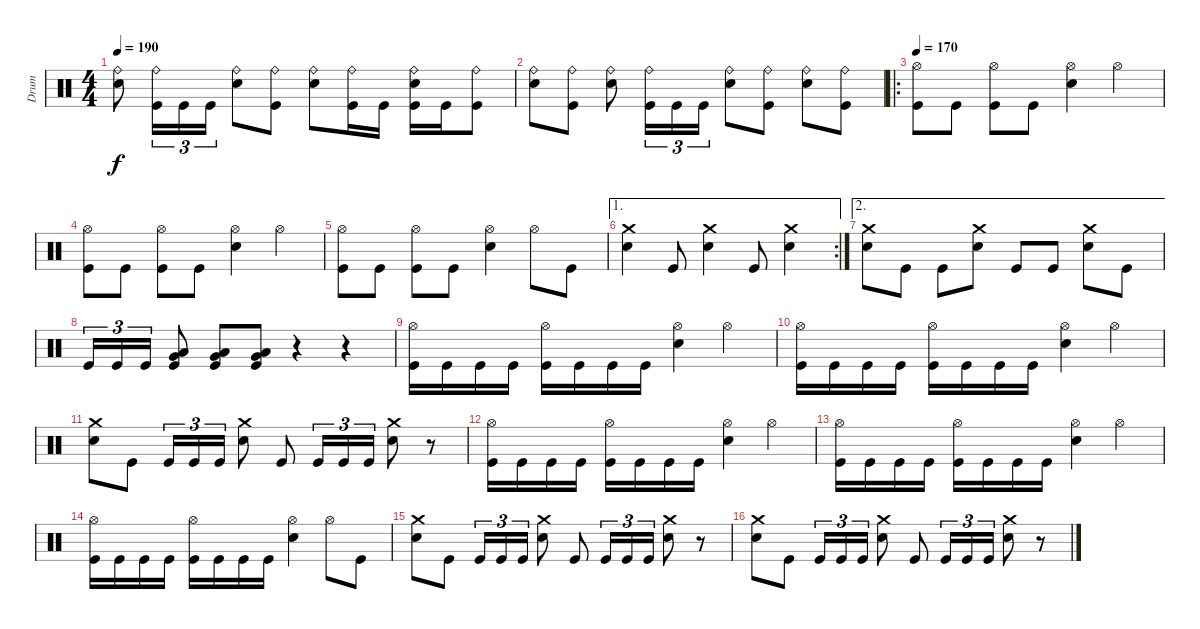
\track ("Drum" "Drum") {instrument percussion}
\staff {score}
\articulation defaults
\ts (4 4)
\tempo 190
\clef neutral
\ks c
("Electric Snare (hit)" "Ride (bell)").8{dy f} ("Kick (hit)" "Ride (bell)").16{tu (3 2)} "Kick (hit)".16{tu (3 2)} "Kick (hit)".16{tu (3 2)} ("Electric Snare (hit)" "Ride (bell)").8 ("Kick (hit)" "Ride (bell)").8 ("Electric Snare (hit)" "Ride (bell)").8 ("Kick (hit)" "Ride (bell)").16 "Kick (hit)".16 ("Kick (hit)" "Electric Snare (hit)" "Ride (bell)").16 "Kick (hit)".16 ("Kick (hit)" "Ride (bell)").8 |
("Electric Snare (hit)" "Ride (bell)").8 ("Kick (hit)" "Ride (bell)").8 ("Electric Snare (hit)" "Ride (bell)").8 ("Kick (hit)" "Ride (bell)").16{tu (3 2)} "Kick (hit)".16{tu (3 2)} "Kick (hit)".16{tu (3 2)} ("Electric Snare (hit)" "Ride (bell)").8 ("Kick (hit)" "Ride (bell)").8 ("Electric Snare (hit)" "Ride (bell)").8 ("Kick (hit)" "Ride (bell)").8 |
\ro
\tempo 170
("Kick (hit)" "Hi-Hat (open)").8 "Kick (hit)".8 ("Kick (hit)" "Hi-Hat (open)").8 "Kick (hit)".8 ("Electric Snare (hit)" "Hi-Hat (open)").4 "Hi-Hat (open)".4 |
("Kick (hit)" "Hi-Hat (open)").8 "Kick (hit)".8 ("Kick (hit)" "Hi-Hat (open)").8 "Kick (hit)".8 ("Electric Snare (hit)" "Hi-Hat (open)").4 "Hi-Hat (open)".4 |
("Kick (hit)" "Hi-Hat (open)").8 "Kick (hit)".8 ("Kick (hit)" "Hi-Hat (open)").8 "Kick (hit)".8 ("Electric Snare (hit)" "Hi-Hat (open)").4 "Hi-Hat (open)".8 "Kick (hit)".8 |
\ae 1
\rc 2
("Electric Snare (hit)" "Crash medium (hit)").4 "Kick (hit)".8 ("Electric Snare (hit)" "Crash medium (hit)").4 "Kick (hit)".8 ("Electric Snare (hit)" "Crash medium (hit)").4 |
\ae 2
("Electric Snare (hit)" "Crash medium (hit)").8 "Kick (hit)".8 "Kick (hit)".8 ("Electric Snare (hit)" "Crash medium (hit)").8 "Kick (hit)".8 "Kick (hit)".8 ("Electric Snare (hit)" "Crash medium (hit)").8 "Kick (hit)".8 |
"Kick (hit)".16{tu (3 2)} "Kick (hit)".16{tu (3 2)} "Kick (hit)".16{tu (3 2)} ("Kick (hit)" "Very Low Tom (hit)" "Low Tom (hit)").8 ("Kick (hit)" "Very Low Tom (hit)" "Low Tom (hit)").8 ("Kick (hit)" "Very Low Tom (hit)" "Low Tom (hit)").8 r.4 r.4 |
("Kick (hit)" "Hi-Hat (open)").16 "Kick (hit)".16 "Kick (hit)".16 "Kick (hit)".16 ("Kick (hit)" "Hi-Hat (open)").16 "Kick (hit)".16 "Kick (hit)".16 "Kick (hit)".16 ("Electric Snare (hit)" "Hi-Hat (open)").4 "Hi-Hat (open)".4 |
("Kick (hit)" "Hi-Hat (open)").16 "Kick (hit)".16 "Kick (hit)".16 "Kick (hit)".16 ("Kick (hit)" "Hi-Hat (open)").16 "Kick (hit)".16 "Kick (hit)".16 "Kick (hit)".16 ("Electric Snare (hit)" "Hi-Hat (open)").4 "Hi-Hat (open)".4 |
("Electric Snare (hit)" "Crash medium (hit)").8 "Kick (hit)".8 "Kick (hit)".16{tu (3 2)} "Kick (hit)".16{tu (3 2)} "Kick (hit)".16{tu (3 2)} ("Electric Snare (hit)" "Crash medium (hit)").8 "Kick (hit)".8 "Kick (hit)".16{tu (3 2)} "Kick (hit)".16{tu (3 2)} "Kick (hit)".16{tu (3 2)} ("Electric Snare (hit)" "Crash medium (hit)").8 r.8 |
("Kick (hit)" "Hi-Hat (open)").16 "Kick (hit)".16 "Kick (hit)".16 "Kick (hit)".16 ("Kick (hit)" "Hi-Hat (open)").16 "Kick (hit)".16 "Kick (hit)".16 "Kick (hit)".16 ("Electric Snare (hit)" "Hi-Hat (open)").4 "Hi-Hat (open)".4 |
("Kick (hit)" "Hi-Hat (open)").16 "Kick (hit)".16 "Kick (hit)".16 "Kick (hit)".16 ("Kick (hit)" "Hi-Hat (open)").16 "Kick (hit)".16 "Kick (hit)".16 "Kick (hit)".16 ("Electric Snare (hit)" "Hi-Hat (open)").4 "Hi-Hat (open)".4 |
("Kick (hit)" "Hi-Hat (open)").16 "Kick (hit)".16 "Kick (hit)".16 "Kick (hit)".16 ("Kick (hit)" "Hi-Hat (open)").16 "Kick (hit)".16 "Kick (hit)".16 "Kick (hit)".16 ("Electric Snare (hit)" "Hi-Hat (open)").4 "Hi-Hat (open)".8 "Kick (hit)".8 |
("Electric Snare (hit)" "Crash medium (hit)").8 "Kick (hit)".8 "Kick (hit)".16{tu (3 2)} "Kick (hit)".16{tu (3 2)} "Kick (hit)".16{tu (3 2)} ("Electric Snare (hit)" "Crash medium (hit)").8 "Kick (hit)".8 "Kick (hit)".16{tu (3 2)} "Kick (hit)".16{tu (3 2)} "Kick (hit)".16{tu (3 2)} ("Electric Snare (hit)" "Crash medium (hit)").8 r.8 |
("Electric Snare (hit)" "Crash medium (hit)").8 "Kick (hit)".8 "Kick (hit)".16{tu (3 2)} "Kick (hit)".16{tu (3 2)} "Kick (hit)".16{tu (3 2)} ("Electric Snare (hit)" "Crash medium (hit)").8 "Kick (hit)".8 "Kick (hit)".16{tu (3 2)} "Kick (hit)".16{tu (3 2)} "Kick (hit)".16{tu (3 2)} ("Electric Snare (hit)" "Crash medium (hit)").8 r.8
